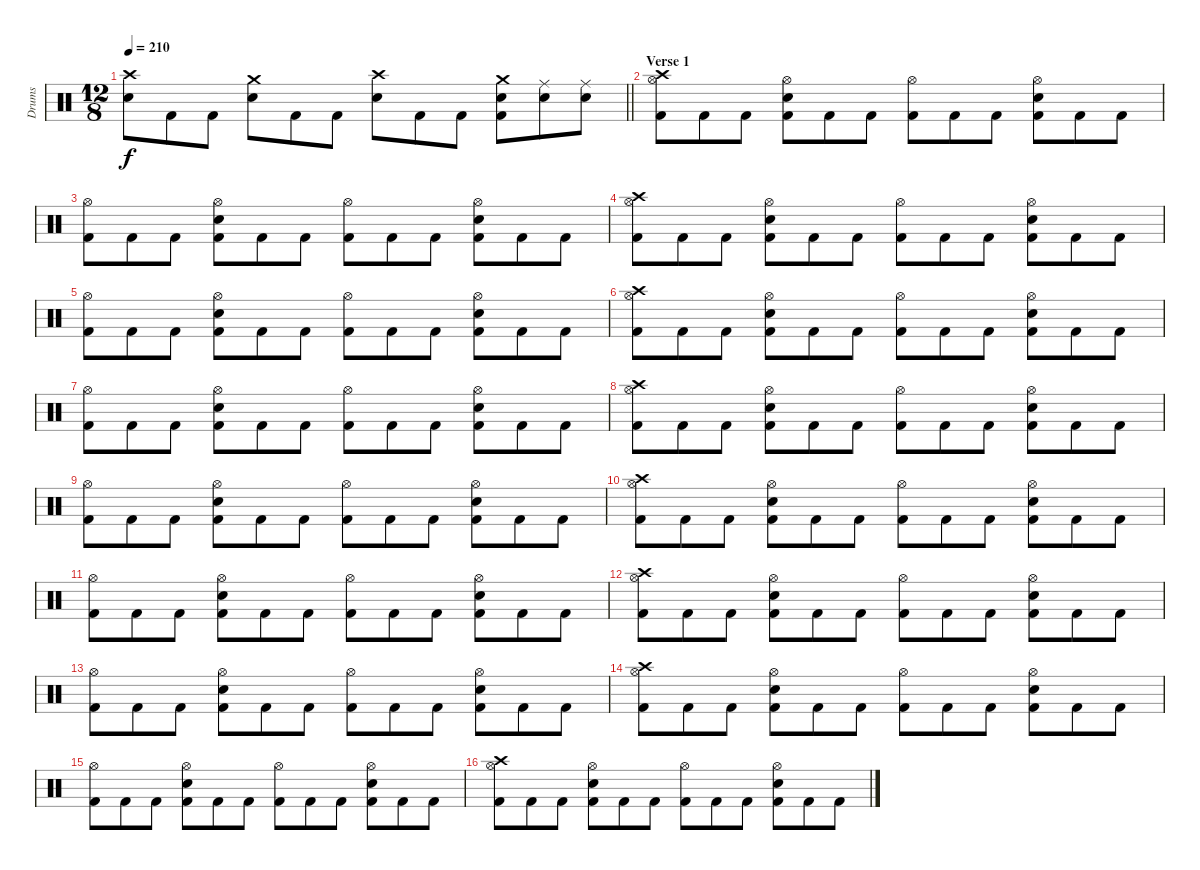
\track ("Drums" "Drums") {instrument percussion}
\staff {score}
\articulation defaults
\ts (12 8)
\tempo 210
\clef neutral
\barLineRight lightlight
\ks c
("Crash high (hit)" "Snare (hit) 2").8{dy f} "Kick (hit) 2".8 "Kick (hit) 2".8 ("Crash medium (hit)" "Snare (hit) 2").8 "Kick (hit) 2".8 "Kick (hit) 2".8 ("Crash high (hit)" "Snare (hit) 2").8 "Kick (hit) 2".8 "Kick (hit) 2".8 ("Crash medium (hit)" "Snare (hit) 2" "Kick (hit) 2").8 ("Ride (middle)" "Snare (hit) 2").8 ("Ride (middle)" "Snare (hit) 2").8 |
\section ("" "Verse 1")
("Crash high (hit)" "Hi-Hat (open)" "Kick (hit) 2").8 "Kick (hit) 2".8 "Kick (hit) 2".8 ("Hi-Hat (open)" "Snare (hit) 2" "Kick (hit) 2").8 "Kick (hit) 2".8 "Kick (hit) 2".8 ("Hi-Hat (open)" "Kick (hit) 2").8 "Kick (hit) 2".8 "Kick (hit) 2".8 ("Hi-Hat (open)" "Snare (hit) 2" "Kick (hit) 2").8 "Kick (hit) 2".8 "Kick (hit) 2".8 |
("Hi-Hat (open)" "Kick (hit) 2").8 "Kick (hit) 2".8 "Kick (hit) 2".8 ("Hi-Hat (open)" "Snare (hit) 2" "Kick (hit) 2").8 "Kick (hit) 2".8 "Kick (hit) 2".8 ("Hi-Hat (open)" "Kick (hit) 2").8 "Kick (hit) 2".8 "Kick (hit) 2".8 ("Hi-Hat (open)" "Snare (hit) 2" "Kick (hit) 2").8 "Kick (hit) 2".8 "Kick (hit) 2".8 |
("Crash high (hit)" "Hi-Hat (open)" "Kick (hit) 2").8 "Kick (hit) 2".8 "Kick (hit) 2".8 ("Hi-Hat (open)" "Snare (hit) 2" "Kick (hit) 2").8 "Kick (hit) 2".8 "Kick (hit) 2".8 ("Hi-Hat (open)" "Kick (hit) 2").8 "Kick (hit) 2".8 "Kick (hit) 2".8 ("Hi-Hat (open)" "Snare (hit) 2" "Kick (hit) 2").8 "Kick (hit) 2".8 "Kick (hit) 2".8 |
("Hi-Hat (open)" "Kick (hit) 2").8 "Kick (hit) 2".8 "Kick (hit) 2".8 ("Hi-Hat (open)" "Snare (hit) 2" "Kick (hit) 2").8 "Kick (hit) 2".8 "Kick (hit) 2".8 ("Hi-Hat (open)" "Kick (hit) 2").8 "Kick (hit) 2".8 "Kick (hit) 2".8 ("Hi-Hat (open)" "Snare (hit) 2" "Kick (hit) 2").8 "Kick (hit) 2".8 "Kick (hit) 2".8 |
("Crash high (hit)" "Hi-Hat (open)" "Kick (hit) 2").8 "Kick (hit) 2".8 "Kick (hit) 2".8 ("Hi-Hat (open)" "Snare (hit) 2" "Kick (hit) 2").8 "Kick (hit) 2".8 "Kick (hit) 2".8 ("Hi-Hat (open)" "Kick (hit) 2").8 "Kick (hit) 2".8 "Kick (hit) 2".8 ("Hi-Hat (open)" "Snare (hit) 2" "Kick (hit) 2").8 "Kick (hit) 2".8 "Kick (hit) 2".8 |
("Hi-Hat (open)" "Kick (hit) 2").8 "Kick (hit) 2".8 "Kick (hit) 2".8 ("Hi-Hat (open)" "Snare (hit) 2" "Kick (hit) 2").8 "Kick (hit) 2".8 "Kick (hit) 2".8 ("Hi-Hat (open)" "Kick (hit) 2").8 "Kick (hit) 2".8 "Kick (hit) 2".8 ("Hi-Hat (open)" "Snare (hit) 2" "Kick (hit) 2").8 "Kick (hit) 2".8 "Kick (hit) 2".8 |
("Crash high (hit)" "Hi-Hat (open)" "Kick (hit) 2").8 "Kick (hit) 2".8 "Kick (hit) 2".8 ("Hi-Hat (open)" "Snare (hit) 2" "Kick (hit) 2").8 "Kick (hit) 2".8 "Kick (hit) 2".8 ("Hi-Hat (open)" "Kick (hit) 2").8 "Kick (hit) 2".8 "Kick (hit) 2".8 ("Hi-Hat (open)" "Snare (hit) 2" "Kick (hit) 2").8 "Kick (hit) 2".8 "Kick (hit) 2".8 |
("Hi-Hat (open)" "Kick (hit) 2").8 "Kick (hit) 2".8 "Kick (hit) 2".8 ("Hi-Hat (open)" "Snare (hit) 2" "Kick (hit) 2").8 "Kick (hit) 2".8 "Kick (hit) 2".8 ("Hi-Hat (open)" "Kick (hit) 2").8 "Kick (hit) 2".8 "Kick (hit) 2".8 ("Hi-Hat (open)" "Snare (hit) 2" "Kick (hit) 2").8 "Kick (hit) 2".8 "Kick (hit) 2".8 |
("Crash high (hit)" "Hi-Hat (open)" "Kick (hit) 2").8 "Kick (hit) 2".8 "Kick (hit) 2".8 ("Hi-Hat (open)" "Snare (hit) 2" "Kick (hit) 2").8 "Kick (hit) 2".8 "Kick (hit) 2".8 ("Hi-Hat (open)" "Kick (hit) 2").8 "Kick (hit) 2".8 "Kick (hit) 2".8 ("Hi-Hat (open)" "Snare (hit) 2" "Kick (hit) 2").8 "Kick (hit) 2".8 "Kick (hit) 2".8 |
("Hi-Hat (open)" "Kick (hit) 2").8 "Kick (hit) 2".8 "Kick (hit) 2".8 ("Hi-Hat (open)" "Snare (hit) 2" "Kick (hit) 2").8 "Kick (hit) 2".8 "Kick (hit) 2".8 ("Hi-Hat (open)" "Kick (hit) 2").8 "Kick (hit) 2".8 "Kick (hit) 2".8 ("Hi-Hat (open)" "Snare (hit) 2" "Kick (hit) 2").8 "Kick (hit) 2".8 "Kick (hit) 2".8 |
("Crash high (hit)" "Hi-Hat (open)" "Kick (hit) 2").8 "Kick (hit) 2".8 "Kick (hit) 2".8 ("Hi-Hat (open)" "Snare (hit) 2" "Kick (hit) 2").8 "Kick (hit) 2".8 "Kick (hit) 2".8 ("Hi-Hat (open)" "Kick (hit) 2").8 "Kick (hit) 2".8 "Kick (hit) 2".8 ("Hi-Hat (open)" "Snare (hit) 2" "Kick (hit) 2").8 "Kick (hit) 2".8 "Kick (hit) 2".8 |
("Hi-Hat (open)" "Kick (hit) 2").8 "Kick (hit) 2".8 "Kick (hit) 2".8 ("Hi-Hat (open)" "Snare (hit) 2" "Kick (hit) 2").8 "Kick (hit) 2".8 "Kick (hit) 2".8 ("Hi-Hat (open)" "Kick (hit) 2").8 "Kick (hit) 2".8 "Kick (hit) 2".8 ("Hi-Hat (open)" "Snare (hit) 2" "Kick (hit) 2").8 "Kick (hit) 2".8 "Kick (hit) 2".8 |
("Crash high (hit)" "Hi-Hat (open)" "Kick (hit) 2").8 "Kick (hit) 2".8 "Kick (hit) 2".8 ("Hi-Hat (open)" "Snare (hit) 2" "Kick (hit) 2").8 "Kick (hit) 2".8 "Kick (hit) 2".8 ("Hi-Hat (open)" "Kick (hit) 2").8 "Kick (hit) 2".8 "Kick (hit) 2".8 ("Hi-Hat (open)" "Snare (hit) 2" "Kick (hit) 2").8 "Kick (hit) 2".8 "Kick (hit) 2".8 |
("Hi-Hat (open)" "Kick (hit) 2").8 "Kick (hit) 2".8 "Kick (hit) 2".8 ("Hi-Hat (open)" "Snare (hit) 2" "Kick (hit) 2").8 "Kick (hit) 2".8 "Kick (hit) 2".8 ("Hi-Hat (open)" "Kick (hit) 2").8 "Kick (hit) 2".8 "Kick (hit) 2".8 ("Hi-Hat (open)" "Snare (hit) 2" "Kick (hit) 2").8 "Kick (hit) 2".8 "Kick (hit) 2".8 |
("Crash high (hit)" "Hi-Hat (open)" "Kick (hit) 2").8 "Kick (hit) 2".8 "Kick (hit) 2".8 ("Hi-Hat (open)" "Snare (hit) 2" "Kick (hit) 2").8 "Kick (hit) 2".8 "Kick (hit) 2".8 ("Hi-Hat (open)" "Kick (hit) 2").8 "Kick (hit) 2".8 "Kick (hit) 2".8 ("Hi-Hat (open)" "Snare (hit) 2" "Kick (hit) 2").8 "Kick (hit) 2".8 "Kick (hit) 2".8
